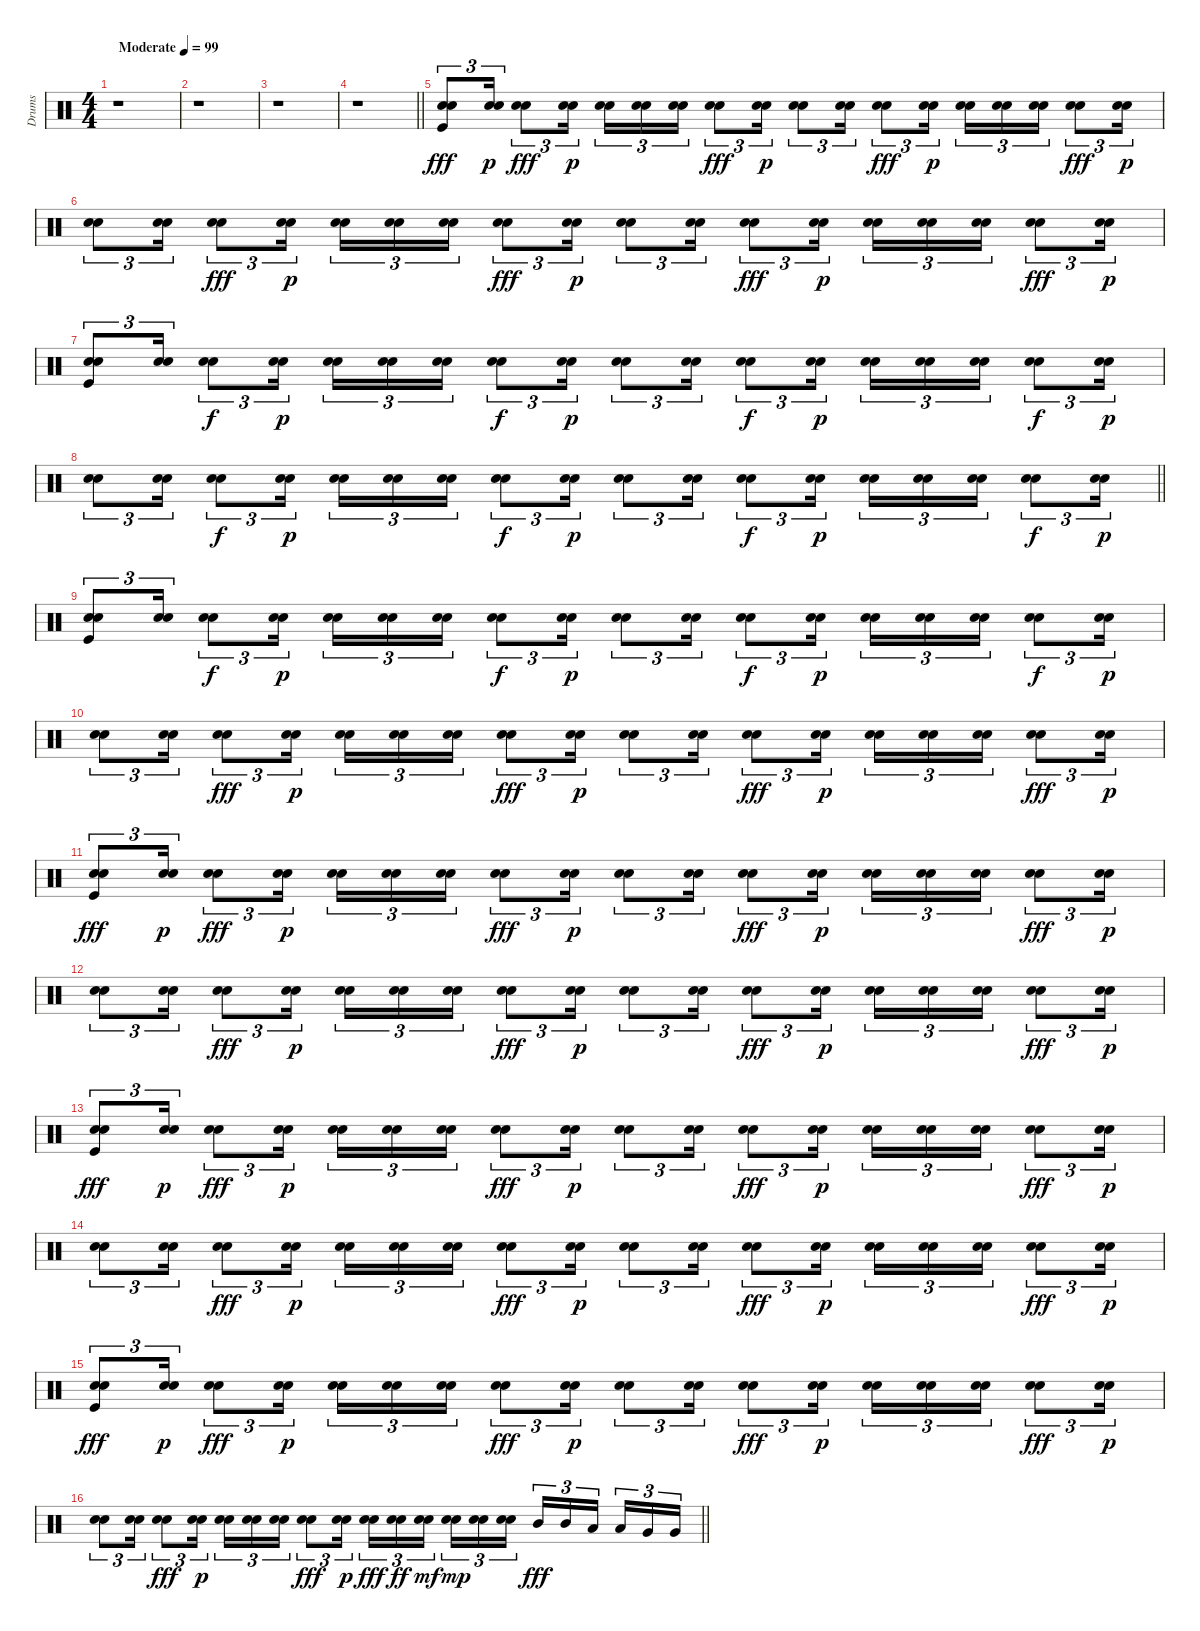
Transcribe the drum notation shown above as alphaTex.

\track ("Drums" "Drums") {instrument percussion}
\staff {score}
\articulation defaults
\ts (4 4)
\tempo (99 "Moderate")
\clef neutral
\ks c
r.1{dy fff} |
r.1 |
r.1 |
\barLineRight lightlight
r.1 |
("Snare (hit) 2" "Electric Snare (hit)" "Kick (hit)").8{tu (3 2)} ("Snare (hit) 2" "Electric Snare (hit)").16{tu (3 2) dy p} ("Snare (hit) 2" "Electric Snare (hit)").8{tu (3 2) dy fff} ("Snare (hit) 2" "Electric Snare (hit)").16{tu (3 2) dy p} ("Snare (hit) 2" "Electric Snare (hit)").16{tu (3 2)} ("Snare (hit) 2" "Electric Snare (hit)").16{tu (3 2)} ("Snare (hit) 2" "Electric Snare (hit)").16{tu (3 2)} ("Snare (hit) 2" "Electric Snare (hit)").8{tu (3 2) dy fff} ("Snare (hit) 2" "Electric Snare (hit)").16{tu (3 2) dy p} ("Snare (hit) 2" "Electric Snare (hit)").8{tu (3 2)} ("Snare (hit) 2" "Electric Snare (hit)").16{tu (3 2)} ("Snare (hit) 2" "Electric Snare (hit)").8{tu (3 2) dy fff} ("Snare (hit) 2" "Electric Snare (hit)").16{tu (3 2) dy p} ("Snare (hit) 2" "Electric Snare (hit)").16{tu (3 2)} ("Snare (hit) 2" "Electric Snare (hit)").16{tu (3 2)} ("Snare (hit) 2" "Electric Snare (hit)").16{tu (3 2)} ("Snare (hit) 2" "Electric Snare (hit)").8{tu (3 2) dy fff} ("Snare (hit) 2" "Electric Snare (hit)").16{tu (3 2) dy p} |
("Snare (hit) 2" "Electric Snare (hit)").8{tu (3 2)} ("Snare (hit) 2" "Electric Snare (hit)").16{tu (3 2)} ("Snare (hit) 2" "Electric Snare (hit)").8{tu (3 2) dy fff} ("Snare (hit) 2" "Electric Snare (hit)").16{tu (3 2) dy p} ("Snare (hit) 2" "Electric Snare (hit)").16{tu (3 2)} ("Snare (hit) 2" "Electric Snare (hit)").16{tu (3 2)} ("Snare (hit) 2" "Electric Snare (hit)").16{tu (3 2)} ("Snare (hit) 2" "Electric Snare (hit)").8{tu (3 2) dy fff} ("Snare (hit) 2" "Electric Snare (hit)").16{tu (3 2) dy p} ("Snare (hit) 2" "Electric Snare (hit)").8{tu (3 2)} ("Snare (hit) 2" "Electric Snare (hit)").16{tu (3 2)} ("Snare (hit) 2" "Electric Snare (hit)").8{tu (3 2) dy fff} ("Snare (hit) 2" "Electric Snare (hit)").16{tu (3 2) dy p} ("Snare (hit) 2" "Electric Snare (hit)").16{tu (3 2)} ("Snare (hit) 2" "Electric Snare (hit)").16{tu (3 2)} ("Snare (hit) 2" "Electric Snare (hit)").16{tu (3 2)} ("Snare (hit) 2" "Electric Snare (hit)").8{tu (3 2) dy fff} ("Snare (hit) 2" "Electric Snare (hit)").16{tu (3 2) dy p} |
("Snare (hit) 2" "Electric Snare (hit)" "Kick (hit)").8{tu (3 2)} ("Snare (hit) 2" "Electric Snare (hit)").16{tu (3 2)} ("Snare (hit) 2" "Electric Snare (hit)").8{tu (3 2) dy f} ("Snare (hit) 2" "Electric Snare (hit)").16{tu (3 2) dy p} ("Snare (hit) 2" "Electric Snare (hit)").16{tu (3 2)} ("Snare (hit) 2" "Electric Snare (hit)").16{tu (3 2)} ("Snare (hit) 2" "Electric Snare (hit)").16{tu (3 2)} ("Snare (hit) 2" "Electric Snare (hit)").8{tu (3 2) dy f} ("Snare (hit) 2" "Electric Snare (hit)").16{tu (3 2) dy p} ("Snare (hit) 2" "Electric Snare (hit)").8{tu (3 2)} ("Snare (hit) 2" "Electric Snare (hit)").16{tu (3 2)} ("Snare (hit) 2" "Electric Snare (hit)").8{tu (3 2) dy f} ("Snare (hit) 2" "Electric Snare (hit)").16{tu (3 2) dy p} ("Snare (hit) 2" "Electric Snare (hit)").16{tu (3 2)} ("Snare (hit) 2" "Electric Snare (hit)").16{tu (3 2)} ("Snare (hit) 2" "Electric Snare (hit)").16{tu (3 2)} ("Snare (hit) 2" "Electric Snare (hit)").8{tu (3 2) dy f} ("Snare (hit) 2" "Electric Snare (hit)").16{tu (3 2) dy p} |
\barLineRight lightlight
("Snare (hit) 2" "Electric Snare (hit)").8{tu (3 2)} ("Snare (hit) 2" "Electric Snare (hit)").16{tu (3 2)} ("Snare (hit) 2" "Electric Snare (hit)").8{tu (3 2) dy f} ("Snare (hit) 2" "Electric Snare (hit)").16{tu (3 2) dy p} ("Snare (hit) 2" "Electric Snare (hit)").16{tu (3 2)} ("Snare (hit) 2" "Electric Snare (hit)").16{tu (3 2)} ("Snare (hit) 2" "Electric Snare (hit)").16{tu (3 2)} ("Snare (hit) 2" "Electric Snare (hit)").8{tu (3 2) dy f} ("Snare (hit) 2" "Electric Snare (hit)").16{tu (3 2) dy p} ("Snare (hit) 2" "Electric Snare (hit)").8{tu (3 2)} ("Snare (hit) 2" "Electric Snare (hit)").16{tu (3 2)} ("Snare (hit) 2" "Electric Snare (hit)").8{tu (3 2) dy f} ("Snare (hit) 2" "Electric Snare (hit)").16{tu (3 2) dy p} ("Snare (hit) 2" "Electric Snare (hit)").16{tu (3 2)} ("Snare (hit) 2" "Electric Snare (hit)").16{tu (3 2)} ("Snare (hit) 2" "Electric Snare (hit)").16{tu (3 2)} ("Snare (hit) 2" "Electric Snare (hit)").8{tu (3 2) dy f} ("Snare (hit) 2" "Electric Snare (hit)").16{tu (3 2) dy p} |
("Snare (hit) 2" "Electric Snare (hit)" "Kick (hit)").8{tu (3 2)} ("Snare (hit) 2" "Electric Snare (hit)").16{tu (3 2)} ("Snare (hit) 2" "Electric Snare (hit)").8{tu (3 2) dy f} ("Snare (hit) 2" "Electric Snare (hit)").16{tu (3 2) dy p} ("Snare (hit) 2" "Electric Snare (hit)").16{tu (3 2)} ("Snare (hit) 2" "Electric Snare (hit)").16{tu (3 2)} ("Snare (hit) 2" "Electric Snare (hit)").16{tu (3 2)} ("Snare (hit) 2" "Electric Snare (hit)").8{tu (3 2) dy f} ("Snare (hit) 2" "Electric Snare (hit)").16{tu (3 2) dy p} ("Snare (hit) 2" "Electric Snare (hit)").8{tu (3 2)} ("Snare (hit) 2" "Electric Snare (hit)").16{tu (3 2)} ("Snare (hit) 2" "Electric Snare (hit)").8{tu (3 2) dy f} ("Snare (hit) 2" "Electric Snare (hit)").16{tu (3 2) dy p} ("Snare (hit) 2" "Electric Snare (hit)").16{tu (3 2)} ("Snare (hit) 2" "Electric Snare (hit)").16{tu (3 2)} ("Snare (hit) 2" "Electric Snare (hit)").16{tu (3 2)} ("Snare (hit) 2" "Electric Snare (hit)").8{tu (3 2) dy f} ("Snare (hit) 2" "Electric Snare (hit)").16{tu (3 2) dy p} |
("Snare (hit) 2" "Electric Snare (hit)").8{tu (3 2)} ("Snare (hit) 2" "Electric Snare (hit)").16{tu (3 2)} ("Snare (hit) 2" "Electric Snare (hit)").8{tu (3 2) dy fff} ("Snare (hit) 2" "Electric Snare (hit)").16{tu (3 2) dy p} ("Snare (hit) 2" "Electric Snare (hit)").16{tu (3 2)} ("Snare (hit) 2" "Electric Snare (hit)").16{tu (3 2)} ("Snare (hit) 2" "Electric Snare (hit)").16{tu (3 2)} ("Snare (hit) 2" "Electric Snare (hit)").8{tu (3 2) dy fff} ("Snare (hit) 2" "Electric Snare (hit)").16{tu (3 2) dy p} ("Snare (hit) 2" "Electric Snare (hit)").8{tu (3 2)} ("Snare (hit) 2" "Electric Snare (hit)").16{tu (3 2)} ("Snare (hit) 2" "Electric Snare (hit)").8{tu (3 2) dy fff} ("Snare (hit) 2" "Electric Snare (hit)").16{tu (3 2) dy p} ("Snare (hit) 2" "Electric Snare (hit)").16{tu (3 2)} ("Snare (hit) 2" "Electric Snare (hit)").16{tu (3 2)} ("Snare (hit) 2" "Electric Snare (hit)").16{tu (3 2)} ("Snare (hit) 2" "Electric Snare (hit)").8{tu (3 2) dy fff} ("Snare (hit) 2" "Electric Snare (hit)").16{tu (3 2) dy p} |
("Snare (hit) 2" "Electric Snare (hit)" "Kick (hit)").8{tu (3 2) dy fff} ("Snare (hit) 2" "Electric Snare (hit)").16{tu (3 2) dy p} ("Snare (hit) 2" "Electric Snare (hit)").8{tu (3 2) dy fff} ("Snare (hit) 2" "Electric Snare (hit)").16{tu (3 2) dy p} ("Snare (hit) 2" "Electric Snare (hit)").16{tu (3 2)} ("Snare (hit) 2" "Electric Snare (hit)").16{tu (3 2)} ("Snare (hit) 2" "Electric Snare (hit)").16{tu (3 2)} ("Snare (hit) 2" "Electric Snare (hit)").8{tu (3 2) dy fff} ("Snare (hit) 2" "Electric Snare (hit)").16{tu (3 2) dy p} ("Snare (hit) 2" "Electric Snare (hit)").8{tu (3 2)} ("Snare (hit) 2" "Electric Snare (hit)").16{tu (3 2)} ("Snare (hit) 2" "Electric Snare (hit)").8{tu (3 2) dy fff} ("Snare (hit) 2" "Electric Snare (hit)").16{tu (3 2) dy p} ("Snare (hit) 2" "Electric Snare (hit)").16{tu (3 2)} ("Snare (hit) 2" "Electric Snare (hit)").16{tu (3 2)} ("Snare (hit) 2" "Electric Snare (hit)").16{tu (3 2)} ("Snare (hit) 2" "Electric Snare (hit)").8{tu (3 2) dy fff} ("Snare (hit) 2" "Electric Snare (hit)").16{tu (3 2) dy p} |
("Snare (hit) 2" "Electric Snare (hit)").8{tu (3 2)} ("Snare (hit) 2" "Electric Snare (hit)").16{tu (3 2)} ("Snare (hit) 2" "Electric Snare (hit)").8{tu (3 2) dy fff} ("Snare (hit) 2" "Electric Snare (hit)").16{tu (3 2) dy p} ("Snare (hit) 2" "Electric Snare (hit)").16{tu (3 2)} ("Snare (hit) 2" "Electric Snare (hit)").16{tu (3 2)} ("Snare (hit) 2" "Electric Snare (hit)").16{tu (3 2)} ("Snare (hit) 2" "Electric Snare (hit)").8{tu (3 2) dy fff} ("Snare (hit) 2" "Electric Snare (hit)").16{tu (3 2) dy p} ("Snare (hit) 2" "Electric Snare (hit)").8{tu (3 2)} ("Snare (hit) 2" "Electric Snare (hit)").16{tu (3 2)} ("Snare (hit) 2" "Electric Snare (hit)").8{tu (3 2) dy fff} ("Snare (hit) 2" "Electric Snare (hit)").16{tu (3 2) dy p} ("Snare (hit) 2" "Electric Snare (hit)").16{tu (3 2)} ("Snare (hit) 2" "Electric Snare (hit)").16{tu (3 2)} ("Snare (hit) 2" "Electric Snare (hit)").16{tu (3 2)} ("Snare (hit) 2" "Electric Snare (hit)").8{tu (3 2) dy fff} ("Snare (hit) 2" "Electric Snare (hit)").16{tu (3 2) dy p} |
("Snare (hit) 2" "Electric Snare (hit)" "Kick (hit)").8{tu (3 2) dy fff} ("Snare (hit) 2" "Electric Snare (hit)").16{tu (3 2) dy p} ("Snare (hit) 2" "Electric Snare (hit)").8{tu (3 2) dy fff} ("Snare (hit) 2" "Electric Snare (hit)").16{tu (3 2) dy p} ("Snare (hit) 2" "Electric Snare (hit)").16{tu (3 2)} ("Snare (hit) 2" "Electric Snare (hit)").16{tu (3 2)} ("Snare (hit) 2" "Electric Snare (hit)").16{tu (3 2)} ("Snare (hit) 2" "Electric Snare (hit)").8{tu (3 2) dy fff} ("Snare (hit) 2" "Electric Snare (hit)").16{tu (3 2) dy p} ("Snare (hit) 2" "Electric Snare (hit)").8{tu (3 2)} ("Snare (hit) 2" "Electric Snare (hit)").16{tu (3 2)} ("Snare (hit) 2" "Electric Snare (hit)").8{tu (3 2) dy fff} ("Snare (hit) 2" "Electric Snare (hit)").16{tu (3 2) dy p} ("Snare (hit) 2" "Electric Snare (hit)").16{tu (3 2)} ("Snare (hit) 2" "Electric Snare (hit)").16{tu (3 2)} ("Snare (hit) 2" "Electric Snare (hit)").16{tu (3 2)} ("Snare (hit) 2" "Electric Snare (hit)").8{tu (3 2) dy fff} ("Snare (hit) 2" "Electric Snare (hit)").16{tu (3 2) dy p} |
("Snare (hit) 2" "Electric Snare (hit)").8{tu (3 2)} ("Snare (hit) 2" "Electric Snare (hit)").16{tu (3 2)} ("Snare (hit) 2" "Electric Snare (hit)").8{tu (3 2) dy fff} ("Snare (hit) 2" "Electric Snare (hit)").16{tu (3 2) dy p} ("Snare (hit) 2" "Electric Snare (hit)").16{tu (3 2)} ("Snare (hit) 2" "Electric Snare (hit)").16{tu (3 2)} ("Snare (hit) 2" "Electric Snare (hit)").16{tu (3 2)} ("Snare (hit) 2" "Electric Snare (hit)").8{tu (3 2) dy fff} ("Snare (hit) 2" "Electric Snare (hit)").16{tu (3 2) dy p} ("Snare (hit) 2" "Electric Snare (hit)").8{tu (3 2)} ("Snare (hit) 2" "Electric Snare (hit)").16{tu (3 2)} ("Snare (hit) 2" "Electric Snare (hit)").8{tu (3 2) dy fff} ("Snare (hit) 2" "Electric Snare (hit)").16{tu (3 2) dy p} ("Snare (hit) 2" "Electric Snare (hit)").16{tu (3 2)} ("Snare (hit) 2" "Electric Snare (hit)").16{tu (3 2)} ("Snare (hit) 2" "Electric Snare (hit)").16{tu (3 2)} ("Snare (hit) 2" "Electric Snare (hit)").8{tu (3 2) dy fff} ("Snare (hit) 2" "Electric Snare (hit)").16{tu (3 2) dy p} |
("Snare (hit) 2" "Electric Snare (hit)" "Kick (hit)").8{tu (3 2) dy fff} ("Snare (hit) 2" "Electric Snare (hit)").16{tu (3 2) dy p} ("Snare (hit) 2" "Electric Snare (hit)").8{tu (3 2) dy fff} ("Snare (hit) 2" "Electric Snare (hit)").16{tu (3 2) dy p} ("Snare (hit) 2" "Electric Snare (hit)").16{tu (3 2)} ("Snare (hit) 2" "Electric Snare (hit)").16{tu (3 2)} ("Snare (hit) 2" "Electric Snare (hit)").16{tu (3 2)} ("Snare (hit) 2" "Electric Snare (hit)").8{tu (3 2) dy fff} ("Snare (hit) 2" "Electric Snare (hit)").16{tu (3 2) dy p} ("Snare (hit) 2" "Electric Snare (hit)").8{tu (3 2)} ("Snare (hit) 2" "Electric Snare (hit)").16{tu (3 2)} ("Snare (hit) 2" "Electric Snare (hit)").8{tu (3 2) dy fff} ("Snare (hit) 2" "Electric Snare (hit)").16{tu (3 2) dy p} ("Snare (hit) 2" "Electric Snare (hit)").16{tu (3 2)} ("Snare (hit) 2" "Electric Snare (hit)").16{tu (3 2)} ("Snare (hit) 2" "Electric Snare (hit)").16{tu (3 2)} ("Snare (hit) 2" "Electric Snare (hit)").8{tu (3 2) dy fff} ("Snare (hit) 2" "Electric Snare (hit)").16{tu (3 2) dy p} |
\barLineRight lightlight
("Snare (hit) 2" "Electric Snare (hit)").8{tu (3 2)} ("Snare (hit) 2" "Electric Snare (hit)").16{tu (3 2)} ("Snare (hit) 2" "Electric Snare (hit)").8{tu (3 2) dy fff} ("Snare (hit) 2" "Electric Snare (hit)").16{tu (3 2) dy p} ("Snare (hit) 2" "Electric Snare (hit)").16{tu (3 2)} ("Snare (hit) 2" "Electric Snare (hit)").16{tu (3 2)} ("Snare (hit) 2" "Electric Snare (hit)").16{tu (3 2)} ("Snare (hit) 2" "Electric Snare (hit)").8{tu (3 2) dy fff} ("Snare (hit) 2" "Electric Snare (hit)").16{tu (3 2) dy p} ("Snare (hit) 2" "Electric Snare (hit)").16{tu (3 2) dy fff} ("Snare (hit) 2" "Electric Snare (hit)").16{tu (3 2) dy ff} ("Snare (hit) 2" "Electric Snare (hit)").16{tu (3 2) dy mf beam splitsecondary} ("Snare (hit) 2" "Electric Snare (hit)").16{tu (3 2) dy mp} ("Snare (hit) 2" "Electric Snare (hit)").16{tu (3 2)} ("Snare (hit) 2" "Electric Snare (hit)").16{tu (3 2)} "Mid Tom (hit)".16{tu (3 2) dy fff} "Mid Tom (hit)".16{tu (3 2)} "Low Tom (hit)".16{tu (3 2) beam splitsecondary} "Low Tom (hit)".16{tu (3 2)} "Very Low Tom (hit)".16{tu (3 2)} "Very Low Tom (hit)".16{tu (3 2)}
